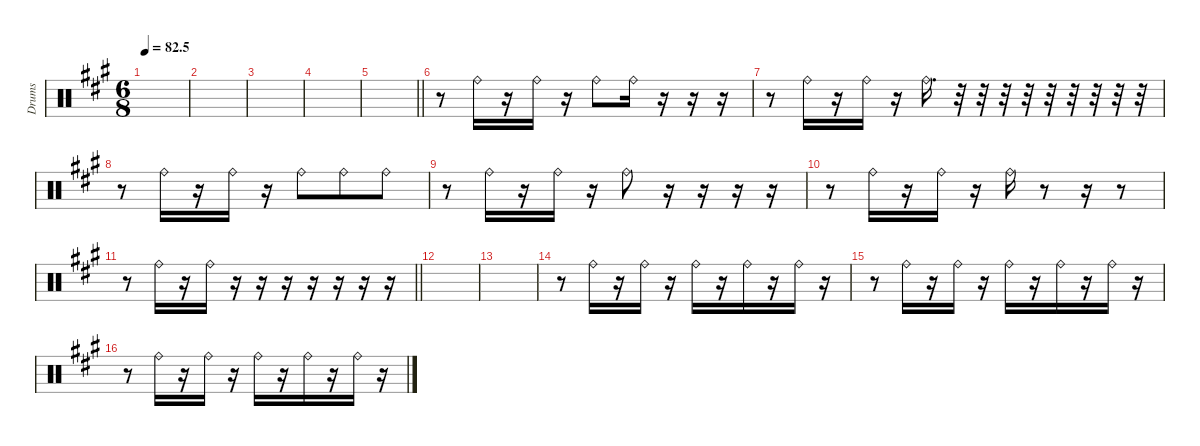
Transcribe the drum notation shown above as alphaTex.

\defaultSystemsLayout 4
\hideDynamics
\bracketExtendMode nobrackets
\otherSystemsTrackNameOrientation horizontal
\track ("Raid" "Drums") {instrument percussion}
\staff {score}
\articulation defaults
\ts (6 8)
\tempo
82.5
\accidentals auto
\clef neutral
\ottava regular
\simile none
\scale
0.333333
\ks a
|
\scale
0.333333 |
\scale
0.333333 |
\scale
0.333333 |
\scale
0.333333
\barLineRight lightlight
|
\scale
0.333333 r.8 "Ride (bell)"{acc forcenatural}.16 r.16 "Ride (bell)"{acc forcenatural}.16 r.16 "Ride (bell)"{acc forcenatural}.8 "Ride (bell)"{acc forcenatural}.16 r.16 r.16 r.16 |
\scale
0.333333 r.8 "Ride (bell)"{acc forcenatural}.16 r.16 "Ride (bell)"{acc forcenatural}.16 r.16 "Ride (bell)"{acc forcenatural}.16{d} r.32 r.32 r.32 r.32 r.32 r.32 r.32 r.32 r.32 |
\scale
0.333333 r.8 "Ride (bell)"{acc forcenatural}.16 r.16 "Ride (bell)"{acc forcenatural}.16 r.16 "Ride (bell)"{acc forcenatural}.8 "Ride (bell)"{acc forcenatural}.8 "Ride (bell)"{acc forcenatural}.8 |
\scale
0.333333 r.8 "Ride (bell)"{acc forcenatural}.16 r.16 "Ride (bell)"{acc forcenatural}.16 r.16 "Ride (bell)"{acc forcenatural}.8 r.16 r.16 r.16 r.16 |
\scale
0.333333 r.8 "Ride (bell)"{acc forcenatural}.16 r.16 "Ride (bell)"{acc forcenatural}.16 r.16 "Ride (bell)"{acc forcenatural}.16 r.8 r.16 r.8 |
\scale
0.333333
\barLineRight lightlight
r.8 "Ride (bell)"{acc forcenatural}.16 r.16 "Ride (bell)"{acc forcenatural}.16 r.16 r.16 r.16 r.16 r.16 r.16 r.16 |
\scale
0.333333 |
\scale
0.333333 |
\scale
0.333333 r.8 "Ride (bell)"{acc forcenatural}.16 r.16 "Ride (bell)"{acc forcenatural}.16 r.16 "Ride (bell)"{acc forcenatural}.16 r.16 "Ride (bell)"{acc forcenatural}.16 r.16 "Ride (bell)"{acc forcenatural}.16 r.16 |
\scale
0.333333 r.8 "Ride (bell)"{acc forcenatural}.16 r.16 "Ride (bell)"{acc forcenatural}.16 r.16 "Ride (bell)"{acc forcenatural}.16 r.16 "Ride (bell)"{acc forcenatural}.16 r.16 "Ride (bell)"{acc forcenatural}.16 r.16 |
\scale
0.333333 r.8 "Ride (bell)"{acc forcenatural}.16 r.16 "Ride (bell)"{acc forcenatural}.16 r.16 "Ride (bell)"{acc forcenatural}.16 r.16 "Ride (bell)"{acc forcenatural}.16 r.16 "Ride (bell)"{acc forcenatural}.16 r.16
